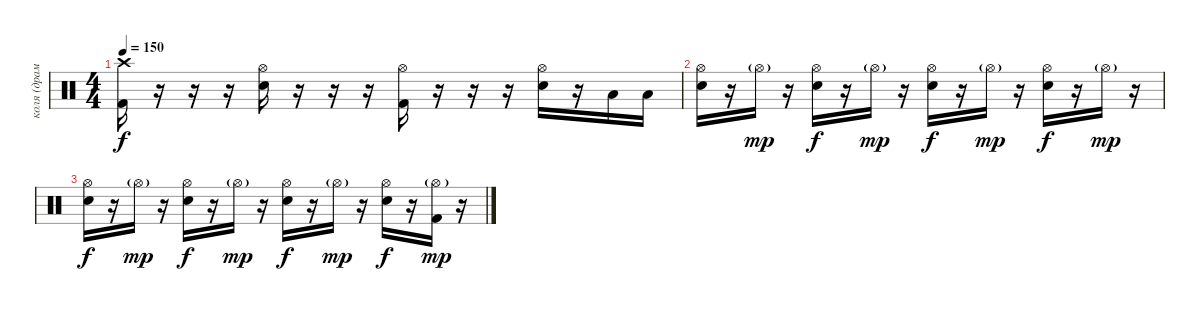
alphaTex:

\track ("коля (драммы)" "коля (драм") {instrument percussion}
\staff {score}
\articulation defaults
\ts (4 4)
\tempo 150
\clef neutral
\ks c
("Kick (hit) 2" "Crash high (hit)").16{dy f} r.16 r.16 r.16 ("Snare (hit) 2" "Hi-Hat (open)").16 r.16 r.16 r.16 ("Kick (hit) 2" "Hi-Hat (open)").16 r.16 r.16 r.16 ("Snare (hit) 2" "Hi-Hat (open)").16 r.16 "Low Tom (hit)".16 "Low Tom (hit)".16 |
("Snare (hit) 2" "Hi-Hat (open)").16 r.16 "Hi-Hat (open)"{g}.16{dy mp} r.16 ("Snare (hit) 2" "Hi-Hat (open)").16{dy f} r.16 "Hi-Hat (open)"{g}.16{dy mp} r.16 ("Snare (hit) 2" "Hi-Hat (open)").16{dy f} r.16 "Hi-Hat (open)"{g}.16{dy mp} r.16 ("Snare (hit) 2" "Hi-Hat (open)").16{dy f} r.16 "Hi-Hat (open)"{g}.16{dy mp} r.16 |
("Snare (hit) 2" "Hi-Hat (open)").16{dy f} r.16 "Hi-Hat (open)"{g}.16{dy mp} r.16 ("Snare (hit) 2" "Hi-Hat (open)").16{dy f} r.16 "Hi-Hat (open)"{g}.16{dy mp} r.16 ("Snare (hit) 2" "Hi-Hat (open)").16{dy f} r.16 "Hi-Hat (open)"{g}.16{dy mp} r.16 ("Snare (hit) 2" "Hi-Hat (open)").16{dy f} r.16 ("Kick (hit) 2" "Hi-Hat (open)"{g}).16{dy mp} r.16
